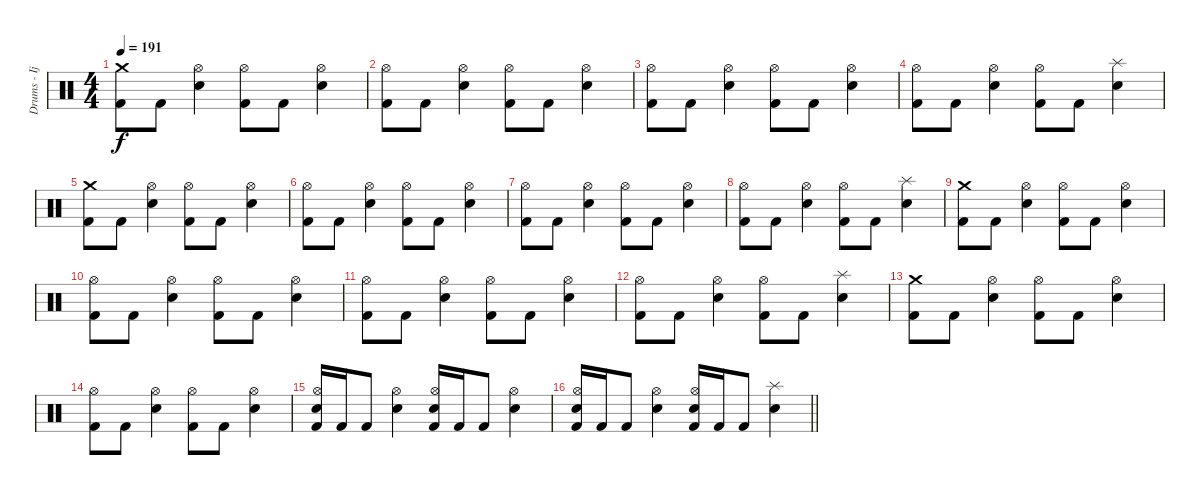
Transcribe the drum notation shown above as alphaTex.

\track ("Drums - Ijichi" "Drums - Ij") {instrument percussion}
\staff
\articulation defaults
\ts (4 4)
\tempo 191
\clef neutral
\ks c
("Crash medium (hit)" "Kick (hit) 2").8{dy f} "Kick (hit) 2".8 ("Hi-Hat (open)" "Electric Snare (hit)").4 ("Hi-Hat (open)" "Kick (hit) 2").8 "Kick (hit) 2".8 ("Hi-Hat (open)" "Electric Snare (hit)").4 |
("Hi-Hat (open)" "Kick (hit) 2").8 "Kick (hit) 2".8 ("Hi-Hat (open)" "Electric Snare (hit)").4 ("Hi-Hat (open)" "Kick (hit) 2").8 "Kick (hit) 2".8 ("Hi-Hat (open)" "Electric Snare (hit)").4 |
("Hi-Hat (open)" "Kick (hit) 2").8 "Kick (hit) 2".8 ("Hi-Hat (open)" "Electric Snare (hit)").4 ("Hi-Hat (open)" "Kick (hit) 2").8 "Kick (hit) 2".8 ("Hi-Hat (open)" "Electric Snare (hit)").4 |
("Hi-Hat (open)" "Kick (hit) 2").8 "Kick (hit) 2".8 ("Hi-Hat (open)" "Electric Snare (hit)").4 ("Hi-Hat (open)" "Kick (hit) 2").8 "Kick (hit) 2".8 ("Splash (hit)" "Electric Snare (hit)").4 |
("Crash medium (hit)" "Kick (hit) 2").8 "Kick (hit) 2".8 ("Hi-Hat (open)" "Electric Snare (hit)").4 ("Hi-Hat (open)" "Kick (hit) 2").8 "Kick (hit) 2".8 ("Hi-Hat (open)" "Electric Snare (hit)").4 |
("Hi-Hat (open)" "Kick (hit) 2").8 "Kick (hit) 2".8 ("Hi-Hat (open)" "Electric Snare (hit)").4 ("Hi-Hat (open)" "Kick (hit) 2").8 "Kick (hit) 2".8 ("Hi-Hat (open)" "Electric Snare (hit)").4 |
("Hi-Hat (open)" "Kick (hit) 2").8 "Kick (hit) 2".8 ("Hi-Hat (open)" "Electric Snare (hit)").4 ("Hi-Hat (open)" "Kick (hit) 2").8 "Kick (hit) 2".8 ("Hi-Hat (open)" "Electric Snare (hit)").4 |
("Hi-Hat (open)" "Kick (hit) 2").8 "Kick (hit) 2".8 ("Hi-Hat (open)" "Electric Snare (hit)").4 ("Hi-Hat (open)" "Kick (hit) 2").8 "Kick (hit) 2".8 ("Splash (hit)" "Electric Snare (hit)").4 |
("Crash medium (hit)" "Kick (hit) 2").8 "Kick (hit) 2".8 ("Hi-Hat (open)" "Electric Snare (hit)").4 ("Hi-Hat (open)" "Kick (hit) 2").8 "Kick (hit) 2".8 ("Hi-Hat (open)" "Electric Snare (hit)").4 |
("Hi-Hat (open)" "Kick (hit) 2").8 "Kick (hit) 2".8 ("Hi-Hat (open)" "Electric Snare (hit)").4 ("Hi-Hat (open)" "Kick (hit) 2").8 "Kick (hit) 2".8 ("Hi-Hat (open)" "Electric Snare (hit)").4 |
("Hi-Hat (open)" "Kick (hit) 2").8 "Kick (hit) 2".8 ("Hi-Hat (open)" "Electric Snare (hit)").4 ("Hi-Hat (open)" "Kick (hit) 2").8 "Kick (hit) 2".8 ("Hi-Hat (open)" "Electric Snare (hit)").4 |
("Hi-Hat (open)" "Kick (hit) 2").8 "Kick (hit) 2".8 ("Hi-Hat (open)" "Electric Snare (hit)").4 ("Hi-Hat (open)" "Kick (hit) 2").8 "Kick (hit) 2".8 ("Splash (hit)" "Electric Snare (hit)").4 |
("Crash medium (hit)" "Kick (hit) 2").8 "Kick (hit) 2".8 ("Hi-Hat (open)" "Electric Snare (hit)").4 ("Hi-Hat (open)" "Kick (hit) 2").8 "Kick (hit) 2".8 ("Hi-Hat (open)" "Electric Snare (hit)").4 |
("Hi-Hat (open)" "Kick (hit) 2").8 "Kick (hit) 2".8 ("Hi-Hat (open)" "Electric Snare (hit)").4 ("Hi-Hat (open)" "Kick (hit) 2").8 "Kick (hit) 2".8 ("Hi-Hat (open)" "Electric Snare (hit)").4 |
("Hi-Hat (open)" "Electric Snare (hit)" "Kick (hit) 2").16 "Kick (hit) 2".16 "Kick (hit) 2".8 ("Hi-Hat (open)" "Electric Snare (hit)").4 ("Hi-Hat (open)" "Electric Snare (hit)" "Kick (hit) 2").16 "Kick (hit) 2".16 "Kick (hit) 2".8 ("Hi-Hat (open)" "Electric Snare (hit)").4 |
\barLineRight lightlight
("Hi-Hat (open)" "Electric Snare (hit)" "Kick (hit) 2").16 "Kick (hit) 2".16 "Kick (hit) 2".8 ("Hi-Hat (open)" "Electric Snare (hit)").4 ("Hi-Hat (open)" "Electric Snare (hit)" "Kick (hit) 2").16 "Kick (hit) 2".16 "Kick (hit) 2".8 ("Splash (hit)" "Electric Snare (hit)").4
